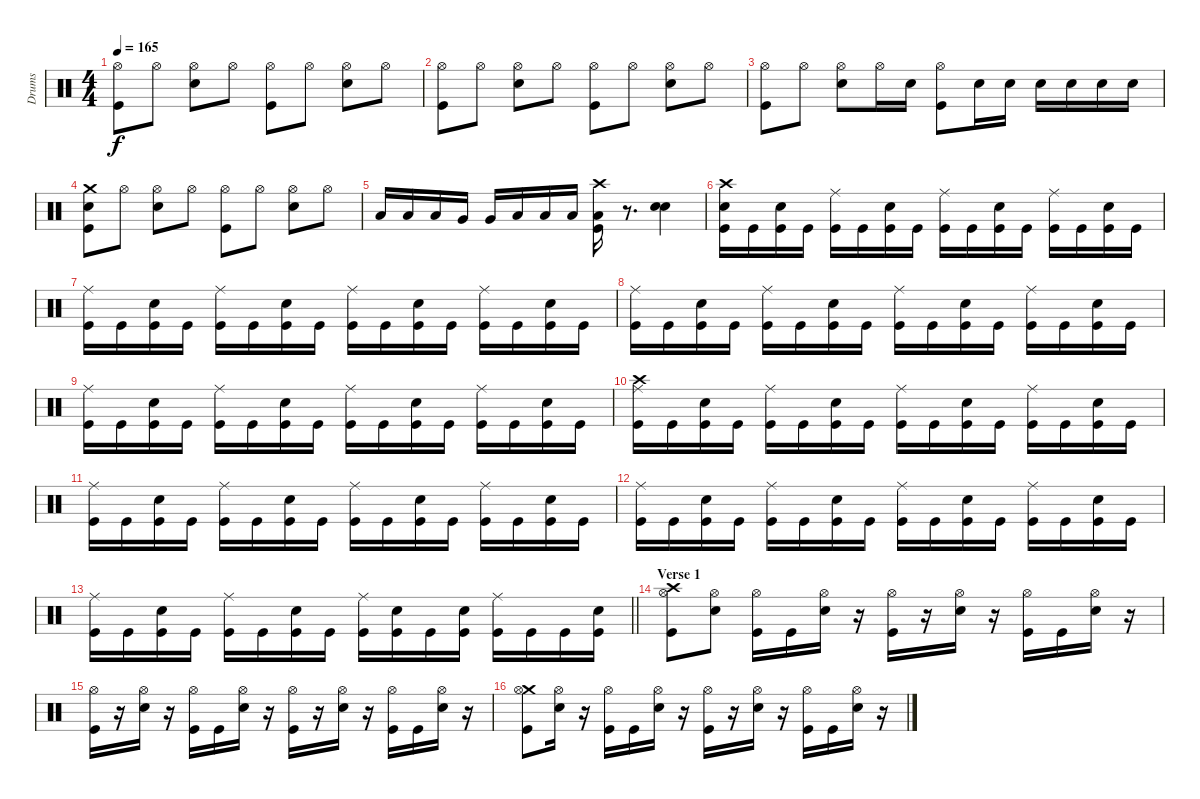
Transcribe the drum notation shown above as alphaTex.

\track ("Drums" "Drums") {instrument percussion}
\staff {score}
\articulation defaults
\ts (4 4)
\tempo 165
\clef neutral
\ks c
("Hi-Hat (open)" "Kick (hit)").8{dy f} "Hi-Hat (open)".8 ("Hi-Hat (open)" "Electric Snare (hit)").8 "Hi-Hat (open)".8 ("Hi-Hat (open)" "Kick (hit)").8 "Hi-Hat (open)".8 ("Hi-Hat (open)" "Electric Snare (hit)").8 "Hi-Hat (open)".8 |
("Hi-Hat (open)" "Kick (hit)").8 "Hi-Hat (open)".8 ("Hi-Hat (open)" "Electric Snare (hit)").8 "Hi-Hat (open)".8 ("Hi-Hat (open)" "Kick (hit)").8 "Hi-Hat (open)".8 ("Hi-Hat (open)" "Electric Snare (hit)").8 "Hi-Hat (open)".8 |
("Hi-Hat (open)" "Kick (hit)").8 "Hi-Hat (open)".8 ("Hi-Hat (open)" "Electric Snare (hit)").8 "Hi-Hat (open)".16 "Electric Snare (hit)".16 ("Hi-Hat (open)" "Kick (hit)").8 "Electric Snare (hit)".16 "Electric Snare (hit)".16 "Electric Snare (hit)".16 "Electric Snare (hit)".16 "Electric Snare (hit)".16 "Electric Snare (hit)".16 |
("Electric Snare (hit)" "Crash medium (hit)" "Kick (hit)").8 "Hi-Hat (open)".8 ("Hi-Hat (open)" "Electric Snare (hit)").8 "Hi-Hat (open)".8 ("Hi-Hat (open)" "Kick (hit)").8 "Hi-Hat (open)".8 ("Hi-Hat (open)" "Electric Snare (hit)").8 "Hi-Hat (open)".8 |
"Low Tom (hit)".16 "Low Tom (hit)".16 "Low Tom (hit)".16 "Very Low Tom (hit)".16 "Very Low Tom (hit)".16 "Low Tom (hit)".16 "Low Tom (hit)".16 "Low Tom (hit)".16 ("Kick (hit)" "Crash high (hit)" "Low Tom (hit)").16 r.8{d} ("Electric Snare (hit)" "Electric Snare (hit)").4 |
("Kick (hit)" "Crash high (hit)" "Electric Snare (hit)").16{volume 14 balance 8} "Kick (hit)".16 ("Electric Snare (hit)" "Kick (hit)").16 "Kick (hit)".16 ("Kick (hit)" "Ride (middle)").16 "Kick (hit)".16 ("Kick (hit)" "Electric Snare (hit)").16 "Kick (hit)".16 ("Ride (middle)" "Kick (hit)").16 "Kick (hit)".16 ("Kick (hit)" "Electric Snare (hit)").16 "Kick (hit)".16 ("Ride (middle)" "Kick (hit)").16 "Kick (hit)".16 ("Kick (hit)" "Electric Snare (hit)").16 "Kick (hit)".16 |
("Ride (middle)" "Kick (hit)").16 "Kick (hit)".16 ("Kick (hit)" "Electric Snare (hit)").16 "Kick (hit)".16 ("Ride (middle)" "Kick (hit)").16 "Kick (hit)".16 ("Kick (hit)" "Electric Snare (hit)").16 "Kick (hit)".16 ("Ride (middle)" "Kick (hit)").16 "Kick (hit)".16 ("Kick (hit)" "Electric Snare (hit)").16 "Kick (hit)".16 ("Ride (middle)" "Kick (hit)").16 "Kick (hit)".16 ("Kick (hit)" "Electric Snare (hit)").16 "Kick (hit)".16 |
("Ride (middle)" "Kick (hit)").16 "Kick (hit)".16 ("Kick (hit)" "Electric Snare (hit)").16 "Kick (hit)".16 ("Ride (middle)" "Kick (hit)").16 "Kick (hit)".16 ("Kick (hit)" "Electric Snare (hit)").16 "Kick (hit)".16 ("Ride (middle)" "Kick (hit)").16 "Kick (hit)".16 ("Kick (hit)" "Electric Snare (hit)").16 "Kick (hit)".16 ("Ride (middle)" "Kick (hit)").16 "Kick (hit)".16 ("Kick (hit)" "Electric Snare (hit)").16 "Kick (hit)".16 |
("Ride (middle)" "Kick (hit)").16 "Kick (hit)".16 ("Kick (hit)" "Electric Snare (hit)").16 "Kick (hit)".16 ("Ride (middle)" "Kick (hit)").16 "Kick (hit)".16 ("Kick (hit)" "Electric Snare (hit)").16 "Kick (hit)".16 ("Ride (middle)" "Kick (hit)").16 "Kick (hit)".16 ("Kick (hit)" "Electric Snare (hit)").16 "Kick (hit)".16 ("Ride (middle)" "Kick (hit)").16 "Kick (hit)".16 ("Kick (hit)" "Electric Snare (hit)").16 "Kick (hit)".16 |
("Crash high (hit)" "Ride (middle)" "Kick (hit)").16{volume 14 balance 8} "Kick (hit)".16 ("Kick (hit)" "Electric Snare (hit)").16 "Kick (hit)".16 ("Ride (middle)" "Kick (hit)").16 "Kick (hit)".16 ("Kick (hit)" "Electric Snare (hit)").16 "Kick (hit)".16 ("Ride (middle)" "Kick (hit)").16 "Kick (hit)".16 ("Kick (hit)" "Electric Snare (hit)").16 "Kick (hit)".16 ("Ride (middle)" "Kick (hit)").16 "Kick (hit)".16 ("Kick (hit)" "Electric Snare (hit)").16 "Kick (hit)".16 |
("Ride (middle)" "Kick (hit)").16 "Kick (hit)".16 ("Kick (hit)" "Electric Snare (hit)").16 "Kick (hit)".16 ("Ride (middle)" "Kick (hit)").16 "Kick (hit)".16 ("Kick (hit)" "Electric Snare (hit)").16 "Kick (hit)".16 ("Ride (middle)" "Kick (hit)").16 "Kick (hit)".16 ("Kick (hit)" "Electric Snare (hit)").16 "Kick (hit)".16 ("Ride (middle)" "Kick (hit)").16 "Kick (hit)".16 ("Kick (hit)" "Electric Snare (hit)").16 "Kick (hit)".16 |
("Ride (middle)" "Kick (hit)").16 "Kick (hit)".16 ("Kick (hit)" "Electric Snare (hit)").16 "Kick (hit)".16 ("Ride (middle)" "Kick (hit)").16 "Kick (hit)".16 ("Kick (hit)" "Electric Snare (hit)").16 "Kick (hit)".16 ("Ride (middle)" "Kick (hit)").16 "Kick (hit)".16 ("Kick (hit)" "Electric Snare (hit)").16 "Kick (hit)".16 ("Ride (middle)" "Kick (hit)").16 "Kick (hit)".16 ("Kick (hit)" "Electric Snare (hit)").16 "Kick (hit)".16 |
\barLineRight lightlight
("Ride (middle)" "Kick (hit)").16 "Kick (hit)".16 ("Kick (hit)" "Electric Snare (hit)").16 "Kick (hit)".16 ("Ride (middle)" "Kick (hit)").16 "Kick (hit)".16 ("Electric Snare (hit)" "Kick (hit)").16 "Kick (hit)".16 ("Ride (middle)" "Kick (hit)").16 ("Snare (hit) 2" "Kick (hit)").16 "Kick (hit)".16 ("Electric Snare (hit)" "Kick (hit)").16 ("Ride (middle)" "Kick (hit)").16 "Kick (hit)".16 "Kick (hit)".16 ("Electric Snare (hit)" "Kick (hit)").16 |
\section ("" "Verse 1")
("Crash high (hit)" "Hi-Hat (open)" "Kick (hit)").8{volume 14 balance 8} ("Electric Snare (hit)" "Hi-Hat (open)").8 ("Kick (hit)" "Hi-Hat (open)").16 "Kick (hit)".16 ("Electric Snare (hit)" "Hi-Hat (open)").16 r.16 ("Kick (hit)" "Hi-Hat (open)").16 r.16 ("Electric Snare (hit)" "Hi-Hat (open)").16 r.16 ("Kick (hit)" "Hi-Hat (open)").16 "Kick (hit)".16 ("Electric Snare (hit)" "Hi-Hat (open)").16 r.16 |
("Hi-Hat (open)" "Kick (hit)").16{volume 14 balance 8} r.16 ("Electric Snare (hit)" "Hi-Hat (open)").16 r.16 ("Kick (hit)" "Hi-Hat (open)").16 "Kick (hit)".16 ("Electric Snare (hit)" "Hi-Hat (open)").16 r.16 ("Kick (hit)" "Hi-Hat (open)").16 r.16 ("Electric Snare (hit)" "Hi-Hat (open)").16 r.16 ("Kick (hit)" "Hi-Hat (open)").16 "Kick (hit)".16 ("Electric Snare (hit)" "Hi-Hat (open)").16 r.16 |
("Crash medium (hit)" "Hi-Hat (open)" "Kick (hit)").8 ("Electric Snare (hit)" "Hi-Hat (open)").16 r.16 ("Kick (hit)" "Hi-Hat (open)").16 "Kick (hit)".16 ("Electric Snare (hit)" "Hi-Hat (open)").16 r.16 ("Kick (hit)" "Hi-Hat (open)").16 r.16 ("Electric Snare (hit)" "Hi-Hat (open)").16 r.16 ("Kick (hit)" "Hi-Hat (open)").16 "Kick (hit)".16 ("Electric Snare (hit)" "Hi-Hat (open)").16 r.16
